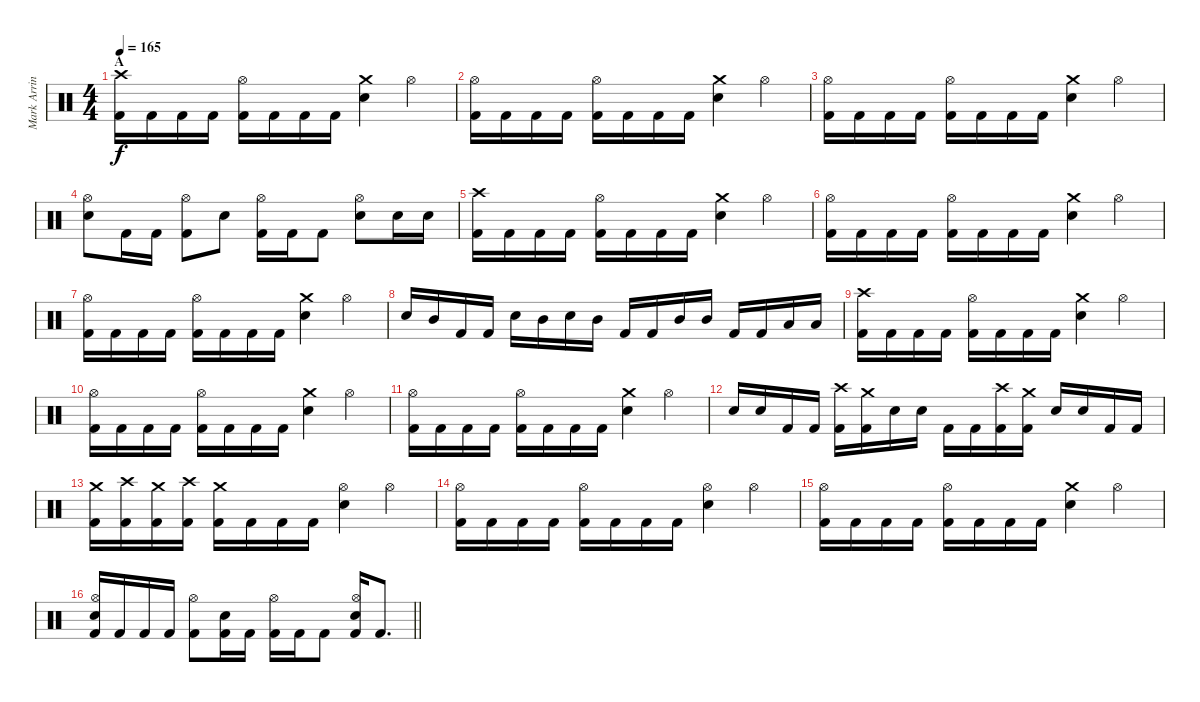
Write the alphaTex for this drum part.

\track ("Mark Arrington Drums" "Mark Arrin") {instrument percussion}
\staff {score}
\articulation defaults
\ts (4 4)
\section ("" "A")
\tempo 165
\clef neutral
\ks c
("Crash high (hit)" "Kick (hit) 2").16{dy f} "Kick (hit) 2".16 "Kick (hit) 2".16 "Kick (hit) 2".16 ("Hi-Hat (open)" "Kick (hit) 2").16 "Kick (hit) 2".16 "Kick (hit) 2".16 "Kick (hit) 2".16 ("Crash medium (hit)" "Electric Snare (hit)").4 "Hi-Hat (open)".4 |
("Hi-Hat (open)" "Kick (hit) 2").16 "Kick (hit) 2".16 "Kick (hit) 2".16 "Kick (hit) 2".16 ("Hi-Hat (open)" "Kick (hit) 2").16 "Kick (hit) 2".16 "Kick (hit) 2".16 "Kick (hit) 2".16 ("Crash medium (hit)" "Electric Snare (hit)").4 "Hi-Hat (open)".4 |
("Hi-Hat (open)" "Kick (hit) 2").16 "Kick (hit) 2".16 "Kick (hit) 2".16 "Kick (hit) 2".16 ("Hi-Hat (open)" "Kick (hit) 2").16 "Kick (hit) 2".16 "Kick (hit) 2".16 "Kick (hit) 2".16 ("Crash medium (hit)" "Electric Snare (hit)").4 "Hi-Hat (open)".4 |
("Hi-Hat (open)" "Electric Snare (hit)").8 "Kick (hit) 2".16 "Kick (hit) 2".16 ("Hi-Hat (open)" "Kick (hit) 2").8 "Electric Snare (hit)".8 ("Hi-Hat (open)" "Kick (hit) 2").16 "Kick (hit) 2".16 "Kick (hit) 2".8 ("Hi-Hat (open)" "Electric Snare (hit)").8 "Electric Snare (hit)".16 "Electric Snare (hit)".16 |
("Crash high (hit)" "Kick (hit) 2").16 "Kick (hit) 2".16 "Kick (hit) 2".16 "Kick (hit) 2".16 ("Hi-Hat (open)" "Kick (hit) 2").16 "Kick (hit) 2".16 "Kick (hit) 2".16 "Kick (hit) 2".16 ("Crash medium (hit)" "Electric Snare (hit)").4 "Hi-Hat (open)".4 |
("Hi-Hat (open)" "Kick (hit) 2").16 "Kick (hit) 2".16 "Kick (hit) 2".16 "Kick (hit) 2".16 ("Hi-Hat (open)" "Kick (hit) 2").16 "Kick (hit) 2".16 "Kick (hit) 2".16 "Kick (hit) 2".16 ("Crash medium (hit)" "Electric Snare (hit)").4 "Hi-Hat (open)".4 |
("Hi-Hat (open)" "Kick (hit) 2").16 "Kick (hit) 2".16 "Kick (hit) 2".16 "Kick (hit) 2".16 ("Hi-Hat (open)" "Kick (hit) 2").16 "Kick (hit) 2".16 "Kick (hit) 2".16 "Kick (hit) 2".16 ("Crash medium (hit)" "Electric Snare (hit)").4 "Hi-Hat (open)".4 |
"Electric Snare (hit)".16 "Mid Tom (hit)".16 "Kick (hit) 2".16 "Kick (hit) 2".16 "Electric Snare (hit)".16 "Mid Tom (hit)".16 "Electric Snare (hit)".16 "Mid Tom (hit)".16 "Kick (hit) 2".16 "Kick (hit) 2".16 "Mid Tom (hit)".16 "Mid Tom (hit)".16 "Kick (hit) 2".16 "Kick (hit) 2".16 "Low Tom (hit)".16 "Low Tom (hit)".16 |
("Crash high (hit)" "Kick (hit) 2").16 "Kick (hit) 2".16 "Kick (hit) 2".16 "Kick (hit) 2".16 ("Hi-Hat (open)" "Kick (hit) 2").16 "Kick (hit) 2".16 "Kick (hit) 2".16 "Kick (hit) 2".16 ("Crash medium (hit)" "Electric Snare (hit)").4 "Hi-Hat (open)".4 |
("Hi-Hat (open)" "Kick (hit) 2").16 "Kick (hit) 2".16 "Kick (hit) 2".16 "Kick (hit) 2".16 ("Hi-Hat (open)" "Kick (hit) 2").16 "Kick (hit) 2".16 "Kick (hit) 2".16 "Kick (hit) 2".16 ("Crash medium (hit)" "Electric Snare (hit)").4 "Hi-Hat (open)".4 |
("Hi-Hat (open)" "Kick (hit) 2").16 "Kick (hit) 2".16 "Kick (hit) 2".16 "Kick (hit) 2".16 ("Hi-Hat (open)" "Kick (hit) 2").16 "Kick (hit) 2".16 "Kick (hit) 2".16 "Kick (hit) 2".16 ("Crash medium (hit)" "Electric Snare (hit)").4 "Hi-Hat (open)".4 |
"Electric Snare (hit)".16 "Electric Snare (hit)".16 "Kick (hit) 2".16 "Kick (hit) 2".16 ("Crash high (hit)" "Kick (hit) 2").16 ("Crash medium (hit)" "Kick (hit) 2").16 "Electric Snare (hit)".16 "Electric Snare (hit)".16 "Kick (hit) 2".16 "Kick (hit) 2".16 ("Crash high (hit)" "Kick (hit) 2").16 ("Crash medium (hit)" "Kick (hit) 2").16 "Electric Snare (hit)".16 "Electric Snare (hit)".16 "Kick (hit) 2".16 "Kick (hit) 2".16 |
("Crash medium (hit)" "Kick (hit) 2").16 ("Crash high (hit)" "Kick (hit) 2").16 ("Crash medium (hit)" "Kick (hit) 2").16 ("Crash high (hit)" "Kick (hit) 2").16 ("Crash medium (hit)" "Kick (hit) 2").16 "Kick (hit) 2".16 "Kick (hit) 2".16 "Kick (hit) 2".16 ("Hi-Hat (open)" "Electric Snare (hit)").4 "Hi-Hat (open)".4 |
("Hi-Hat (open)" "Kick (hit) 2").16 "Kick (hit) 2".16 "Kick (hit) 2".16 "Kick (hit) 2".16 ("Hi-Hat (open)" "Kick (hit) 2").16 "Kick (hit) 2".16 "Kick (hit) 2".16 "Kick (hit) 2".16 ("Hi-Hat (open)" "Electric Snare (hit)").4 "Hi-Hat (open)".4 |
("Hi-Hat (open)" "Kick (hit) 2").16 "Kick (hit) 2".16 "Kick (hit) 2".16 "Kick (hit) 2".16 ("Hi-Hat (open)" "Kick (hit) 2").16 "Kick (hit) 2".16 "Kick (hit) 2".16 "Kick (hit) 2".16 ("Crash medium (hit)" "Electric Snare (hit)").4 "Hi-Hat (open)".4 |
\barLineRight lightlight
("Hi-Hat (open)" "Electric Snare (hit)" "Kick (hit) 2").16 "Kick (hit) 2".16 "Kick (hit) 2".16 "Kick (hit) 2".16 ("Hi-Hat (open)" "Kick (hit) 2").8 ("Electric Snare (hit)" "Kick (hit) 2").16 "Kick (hit) 2".16 ("Hi-Hat (open)" "Kick (hit) 2").16 "Kick (hit) 2".16 "Kick (hit) 2".8 ("Hi-Hat (open)" "Electric Snare (hit)" "Kick (hit) 2").16 "Kick (hit) 2".8{d}
